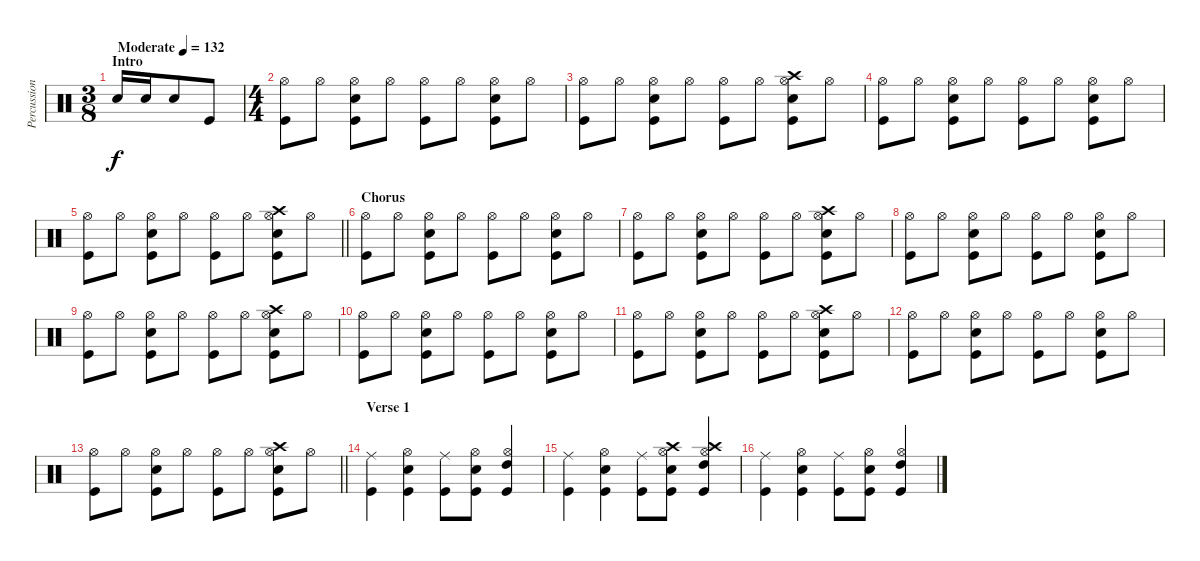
\track ("Percussions" "Percussion") {instrument percussion}
\staff {score}
\articulation defaults
\ts (3 8)
\section ("" "Intro")
\tempo (132 "Moderate")
\clef neutral
\ks c "Snare (hit) 2".16{dy f} "Snare (hit) 2".16 "Snare (hit) 2".8 "Kick (hit)".8
|
\ts (4 4)
("Hi-Hat (open)" "Kick (hit)").8 "Hi-Hat (open)".8 ("Snare (hit) 2" "Hi-Hat (open)" "Kick (hit)").8 "Hi-Hat (open)".8 ("Hi-Hat (open)" "Kick (hit)").8 "Hi-Hat (open)".8 ("Snare (hit) 2" "Hi-Hat (open)" "Kick (hit)").8 "Hi-Hat (open)".8 |
("Hi-Hat (open)" "Kick (hit)").8 "Hi-Hat (open)".8 ("Snare (hit) 2" "Hi-Hat (open)" "Kick (hit)").8 "Hi-Hat (open)".8 ("Hi-Hat (open)" "Kick (hit)").8 "Hi-Hat (open)".8 ("Snare (hit) 2" "Hi-Hat (open)" "Crash high (hit)" "Kick (hit)").8 "Hi-Hat (open)".8 |
("Hi-Hat (open)" "Kick (hit)").8 "Hi-Hat (open)".8 ("Snare (hit) 2" "Hi-Hat (open)" "Kick (hit)").8 "Hi-Hat (open)".8 ("Hi-Hat (open)" "Kick (hit)").8 "Hi-Hat (open)".8 ("Snare (hit) 2" "Hi-Hat (open)" "Kick (hit)").8 "Hi-Hat (open)".8 |
\barLineRight lightlight
("Hi-Hat (open)" "Kick (hit)").8 "Hi-Hat (open)".8 ("Snare (hit) 2" "Hi-Hat (open)" "Kick (hit)").8 "Hi-Hat (open)".8 ("Hi-Hat (open)" "Kick (hit)").8 "Hi-Hat (open)".8 ("Snare (hit) 2" "Hi-Hat (open)" "Crash high (hit)" "Kick (hit)").8 "Hi-Hat (open)".8 |
\section ("" "Chorus")
("Hi-Hat (open)" "Kick (hit)").8 "Hi-Hat (open)".8 ("Snare (hit) 2" "Hi-Hat (open)" "Kick (hit)").8 "Hi-Hat (open)".8 ("Hi-Hat (open)" "Kick (hit)").8 "Hi-Hat (open)".8 ("Snare (hit) 2" "Hi-Hat (open)" "Kick (hit)").8 "Hi-Hat (open)".8 |
("Hi-Hat (open)" "Kick (hit)").8 "Hi-Hat (open)".8 ("Snare (hit) 2" "Hi-Hat (open)" "Kick (hit)").8 "Hi-Hat (open)".8 ("Hi-Hat (open)" "Kick (hit)").8 "Hi-Hat (open)".8 ("Snare (hit) 2" "Hi-Hat (open)" "Crash high (hit)" "Kick (hit)").8 "Hi-Hat (open)".8 |
("Hi-Hat (open)" "Kick (hit)").8 "Hi-Hat (open)".8 ("Snare (hit) 2" "Hi-Hat (open)" "Kick (hit)").8 "Hi-Hat (open)".8 ("Hi-Hat (open)" "Kick (hit)").8 "Hi-Hat (open)".8 ("Snare (hit) 2" "Hi-Hat (open)" "Kick (hit)").8 "Hi-Hat (open)".8 |
("Hi-Hat (open)" "Kick (hit)").8 "Hi-Hat (open)".8 ("Snare (hit) 2" "Hi-Hat (open)" "Kick (hit)").8 "Hi-Hat (open)".8 ("Hi-Hat (open)" "Kick (hit)").8 "Hi-Hat (open)".8 ("Snare (hit) 2" "Hi-Hat (open)" "Crash high (hit)" "Kick (hit)").8 "Hi-Hat (open)".8 |
("Hi-Hat (open)" "Kick (hit)").8 "Hi-Hat (open)".8 ("Snare (hit) 2" "Hi-Hat (open)" "Kick (hit)").8 "Hi-Hat (open)".8 ("Hi-Hat (open)" "Kick (hit)").8 "Hi-Hat (open)".8 ("Snare (hit) 2" "Hi-Hat (open)" "Kick (hit)").8 "Hi-Hat (open)".8 |
("Hi-Hat (open)" "Kick (hit)").8 "Hi-Hat (open)".8 ("Snare (hit) 2" "Hi-Hat (open)" "Kick (hit)").8 "Hi-Hat (open)".8 ("Hi-Hat (open)" "Kick (hit)").8 "Hi-Hat (open)".8 ("Snare (hit) 2" "Hi-Hat (open)" "Crash high (hit)" "Kick (hit)").8 "Hi-Hat (open)".8 |
("Hi-Hat (open)" "Kick (hit)").8 "Hi-Hat (open)".8 ("Snare (hit) 2" "Hi-Hat (open)" "Kick (hit)").8 "Hi-Hat (open)".8 ("Hi-Hat (open)" "Kick (hit)").8 "Hi-Hat (open)".8 ("Snare (hit) 2" "Hi-Hat (open)" "Kick (hit)").8 "Hi-Hat (open)".8 |
\barLineRight lightlight
("Hi-Hat (open)" "Kick (hit)").8 "Hi-Hat (open)".8 ("Snare (hit) 2" "Hi-Hat (open)" "Kick (hit)").8 "Hi-Hat (open)".8 ("Hi-Hat (open)" "Kick (hit)").8 "Hi-Hat (open)".8 ("Snare (hit) 2" "Hi-Hat (open)" "Crash high (hit)" "Kick (hit)").8 "Hi-Hat (open)".8 |
\section ("" "Verse 1")
("Ride (middle)" "Kick (hit)").4 ("Snare (hit) 2" "Hi-Hat (open)" "Kick (hit)").4 ("Ride (middle)" "Kick (hit)").8 ("Snare (hit) 2" "Hi-Hat (open)" "Kick (hit)").8 ("High Tom (hit)" "Hi-Hat (open)" "Kick (hit)").4 |
("Ride (middle)" "Kick (hit)").4 ("Snare (hit) 2" "Hi-Hat (open)" "Kick (hit)").4 ("Ride (middle)" "Kick (hit)").8 ("Snare (hit) 2" "Hi-Hat (open)" "Crash high (hit)" "Kick (hit)").8 ("High Tom (hit)" "Hi-Hat (open)" "Crash high (hit)" "Kick (hit)").4 |
("Ride (middle)" "Kick (hit)").4 ("Snare (hit) 2" "Hi-Hat (open)" "Kick (hit)").4 ("Ride (middle)" "Kick (hit)").8 ("Snare (hit) 2" "Hi-Hat (open)" "Kick (hit)").8 ("High Tom (hit)" "Hi-Hat (open)" "Kick (hit)").4
